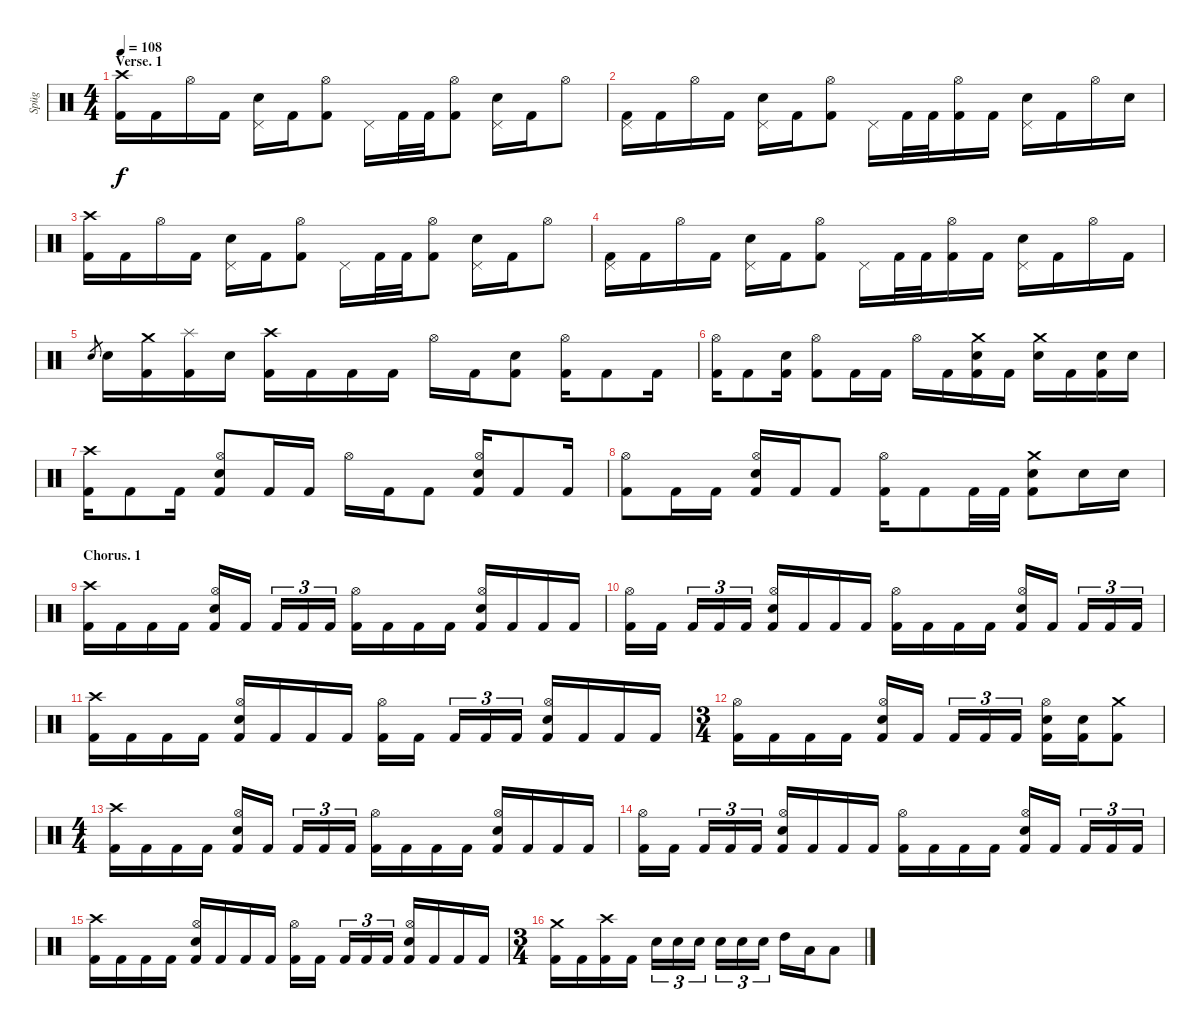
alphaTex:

\track ("Spüg" "Spüg") {instrument percussion}
\staff {score}
\articulation defaults
\ts (4 4)
\section ("" "Verse. 1")
\tempo 108
\clef neutral
\ks c
("Crash high (hit)" "Kick (hit) 2").16{dy f} "Kick (hit) 2".16 "Hi-Hat (open)".16 "Kick (hit) 2".16 ("Pedal Hi-Hat (hit)" "Electric Snare (hit)").16 "Kick (hit) 2".16 ("Hi-Hat (open)" "Kick (hit) 2").8 "Pedal Hi-Hat (hit)".16 "Kick (hit) 2".32 "Kick (hit) 2".32 ("Hi-Hat (open)" "Kick (hit) 2").8 ("Pedal Hi-Hat (hit)" "Electric Snare (hit)").16 "Kick (hit) 2".16 "Hi-Hat (open)".8 |
("Pedal Hi-Hat (hit)" "Kick (hit) 2").16 "Kick (hit) 2".16 "Hi-Hat (open)".16 "Kick (hit) 2".16 ("Pedal Hi-Hat (hit)" "Electric Snare (hit)").16 "Kick (hit) 2".16 ("Hi-Hat (open)" "Kick (hit) 2").8 "Pedal Hi-Hat (hit)".16 "Kick (hit) 2".32 "Kick (hit) 2".32 ("Hi-Hat (open)" "Kick (hit) 2").16 "Kick (hit) 2".16 ("Pedal Hi-Hat (hit)" "Electric Snare (hit)").16 "Kick (hit) 2".16 "Hi-Hat (open)".16 "Electric Snare (hit)".16 |
("Crash high (hit)" "Kick (hit) 2").16 "Kick (hit) 2".16 "Hi-Hat (open)".16 "Kick (hit) 2".16 ("Pedal Hi-Hat (hit)" "Electric Snare (hit)").16 "Kick (hit) 2".16 ("Hi-Hat (open)" "Kick (hit) 2").8 "Pedal Hi-Hat (hit)".16 "Kick (hit) 2".32 "Kick (hit) 2".32 ("Hi-Hat (open)" "Kick (hit) 2").8 ("Pedal Hi-Hat (hit)" "Electric Snare (hit)").16 "Kick (hit) 2".16 "Hi-Hat (open)".8 |
("Pedal Hi-Hat (hit)" "Kick (hit) 2").16 "Kick (hit) 2".16 "Hi-Hat (open)".16 "Kick (hit) 2".16 ("Pedal Hi-Hat (hit)" "Electric Snare (hit)").16 "Kick (hit) 2".16 ("Hi-Hat (open)" "Kick (hit) 2").8 "Pedal Hi-Hat (hit)".16 "Kick (hit) 2".32 "Kick (hit) 2".32 ("Hi-Hat (open)" "Kick (hit) 2").16 "Kick (hit) 2".16 ("Pedal Hi-Hat (hit)" "Electric Snare (hit)").16 "Kick (hit) 2".16 "Hi-Hat (open)".16 "Kick (hit) 2".16 |
"Electric Snare (hit)".8{gr} "Electric Snare (hit)".16 ("Crash medium (hit)" "Kick (hit) 2").16 ("Splash (hit)" "Kick (hit) 2").16 "Electric Snare (hit)".16 ("Crash high (hit)" "Kick (hit) 2").16 "Kick (hit) 2".16 "Kick (hit) 2".16 "Kick (hit) 2".16 "Hi-Hat (open)".16 "Kick (hit) 2".16 ("Electric Snare (hit)" "Kick (hit) 2").8 ("Hi-Hat (open)" "Kick (hit) 2").16 "Kick (hit) 2".8 "Kick (hit) 2".16 |
("Hi-Hat (open)" "Kick (hit) 2").16 "Kick (hit) 2".8 ("Electric Snare (hit)" "Kick (hit) 2").16 ("Hi-Hat (open)" "Kick (hit) 2").8 "Kick (hit) 2".16 "Kick (hit) 2".16 "Hi-Hat (open)".16 "Kick (hit) 2".16 ("Crash medium (hit)" "Electric Snare (hit)" "Kick (hit) 2").16 "Kick (hit) 2".16 ("Crash medium (hit)" "Electric Snare (hit)").16 "Kick (hit) 2".16 ("Electric Snare (hit)" "Kick (hit) 2").16 "Electric Snare (hit)".16 |
("Crash high (hit)" "Kick (hit) 2").16 "Kick (hit) 2".8 "Kick (hit) 2".16 ("Hi-Hat (open)" "Electric Snare (hit)" "Kick (hit) 2").8 "Kick (hit) 2".16 "Kick (hit) 2".16 "Hi-Hat (open)".16 "Kick (hit) 2".16 "Kick (hit) 2".8 ("Hi-Hat (open)" "Electric Snare (hit)" "Kick (hit) 2").16 "Kick (hit) 2".8 "Kick (hit) 2".16 |
("Hi-Hat (open)" "Kick (hit) 2").8 "Kick (hit) 2".16 "Kick (hit) 2".16 ("Hi-Hat (open)" "Electric Snare (hit)" "Kick (hit) 2").16 "Kick (hit) 2".16 "Kick (hit) 2".8 ("Hi-Hat (open)" "Kick (hit) 2").16 "Kick (hit) 2".8 "Kick (hit) 2".32 "Kick (hit) 2".32 ("Crash medium (hit)" "Electric Snare (hit)" "Kick (hit) 2").8 "Electric Snare (hit)".16 "Electric Snare (hit)".16 |
\section ("" "Chorus. 1")
("Crash high (hit)" "Kick (hit) 2").16 "Kick (hit) 2".16 "Kick (hit) 2".16 "Kick (hit) 2".16 ("Hi-Hat (open)" "Electric Snare (hit)" "Kick (hit) 2").16 "Kick (hit) 2".16 "Kick (hit) 2".16{tu (3 2)} "Kick (hit) 2".16{tu (3 2)} "Kick (hit) 2".16{tu (3 2)} ("Hi-Hat (open)" "Kick (hit) 2").16 "Kick (hit) 2".16 "Kick (hit) 2".16 "Kick (hit) 2".16 ("Hi-Hat (open)" "Electric Snare (hit)" "Kick (hit) 2").16 "Kick (hit) 2".16 "Kick (hit) 2".16 "Kick (hit) 2".16 |
("Hi-Hat (open)" "Kick (hit) 2").16 "Kick (hit) 2".16 "Kick (hit) 2".16{tu (3 2)} "Kick (hit) 2".16{tu (3 2)} "Kick (hit) 2".16{tu (3 2)} ("Hi-Hat (open)" "Electric Snare (hit)" "Kick (hit) 2").16 "Kick (hit) 2".16 "Kick (hit) 2".16 "Kick (hit) 2".16 ("Hi-Hat (open)" "Kick (hit) 2").16 "Kick (hit) 2".16 "Kick (hit) 2".16 "Kick (hit) 2".16 ("Hi-Hat (open)" "Electric Snare (hit)" "Kick (hit) 2").16 "Kick (hit) 2".16 "Kick (hit) 2".16{tu (3 2)} "Kick (hit) 2".16{tu (3 2)} "Kick (hit) 2".16{tu (3 2)} |
("Crash high (hit)" "Kick (hit) 2").16 "Kick (hit) 2".16 "Kick (hit) 2".16 "Kick (hit) 2".16 ("Hi-Hat (open)" "Electric Snare (hit)" "Kick (hit) 2").16 "Kick (hit) 2".16 "Kick (hit) 2".16 "Kick (hit) 2".16 ("Hi-Hat (open)" "Kick (hit) 2").16 "Kick (hit) 2".16 "Kick (hit) 2".16{tu (3 2)} "Kick (hit) 2".16{tu (3 2)} "Kick (hit) 2".16{tu (3 2)} ("Hi-Hat (open)" "Electric Snare (hit)" "Kick (hit) 2").16 "Kick (hit) 2".16 "Kick (hit) 2".16 "Kick (hit) 2".16 |
\ts (3 4)
("Hi-Hat (open)" "Kick (hit) 2").16 "Kick (hit) 2".16 "Kick (hit) 2".16 "Kick (hit) 2".16 ("Hi-Hat (open)" "Electric Snare (hit)" "Kick (hit) 2").16 "Kick (hit) 2".16 "Kick (hit) 2".16{tu (3 2)} "Kick (hit) 2".16{tu (3 2)} "Kick (hit) 2".16{tu (3 2)} ("Hi-Hat (open)" "Electric Snare (hit)" "Kick (hit) 2").16 ("Electric Snare (hit)" "Kick (hit) 2").16 ("Crash medium (hit)" "Kick (hit) 2").8 |
\ts (4 4)
("Crash high (hit)" "Kick (hit) 2").16 "Kick (hit) 2".16 "Kick (hit) 2".16 "Kick (hit) 2".16 ("Hi-Hat (open)" "Electric Snare (hit)" "Kick (hit) 2").16 "Kick (hit) 2".16 "Kick (hit) 2".16{tu (3 2)} "Kick (hit) 2".16{tu (3 2)} "Kick (hit) 2".16{tu (3 2)} ("Hi-Hat (open)" "Kick (hit) 2").16 "Kick (hit) 2".16 "Kick (hit) 2".16 "Kick (hit) 2".16 ("Hi-Hat (open)" "Electric Snare (hit)" "Kick (hit) 2").16 "Kick (hit) 2".16 "Kick (hit) 2".16 "Kick (hit) 2".16 |
("Hi-Hat (open)" "Kick (hit) 2").16 "Kick (hit) 2".16 "Kick (hit) 2".16{tu (3 2)} "Kick (hit) 2".16{tu (3 2)} "Kick (hit) 2".16{tu (3 2)} ("Hi-Hat (open)" "Electric Snare (hit)" "Kick (hit) 2").16 "Kick (hit) 2".16 "Kick (hit) 2".16 "Kick (hit) 2".16 ("Hi-Hat (open)" "Kick (hit) 2").16 "Kick (hit) 2".16 "Kick (hit) 2".16 "Kick (hit) 2".16 ("Hi-Hat (open)" "Electric Snare (hit)" "Kick (hit) 2").16 "Kick (hit) 2".16 "Kick (hit) 2".16{tu (3 2)} "Kick (hit) 2".16{tu (3 2)} "Kick (hit) 2".16{tu (3 2)} |
("Crash high (hit)" "Kick (hit) 2").16 "Kick (hit) 2".16 "Kick (hit) 2".16 "Kick (hit) 2".16 ("Hi-Hat (open)" "Electric Snare (hit)" "Kick (hit) 2").16 "Kick (hit) 2".16 "Kick (hit) 2".16 "Kick (hit) 2".16 ("Hi-Hat (open)" "Kick (hit) 2").16 "Kick (hit) 2".16 "Kick (hit) 2".16{tu (3 2)} "Kick (hit) 2".16{tu (3 2)} "Kick (hit) 2".16{tu (3 2)} ("Hi-Hat (open)" "Electric Snare (hit)" "Kick (hit) 2").16 "Kick (hit) 2".16 "Kick (hit) 2".16 "Kick (hit) 2".16 |
\ts (3 4)
("Crash medium (hit)" "Kick (hit) 2").16 "Kick (hit) 2".16 ("Crash high (hit)" "Kick (hit) 2").16 "Kick (hit) 2".16 "Electric Snare (hit)".16{tu (3 2)} "Electric Snare (hit)".16{tu (3 2)} "Electric Snare (hit)".16{tu (3 2)} "Electric Snare (hit)".16{tu (3 2)} "Electric Snare (hit)".16{tu (3 2)} "Electric Snare (hit)".16{tu (3 2)} "High Tom (hit)".16 "Low Tom (hit)".16 "Low Floor Tom (hit)".8
